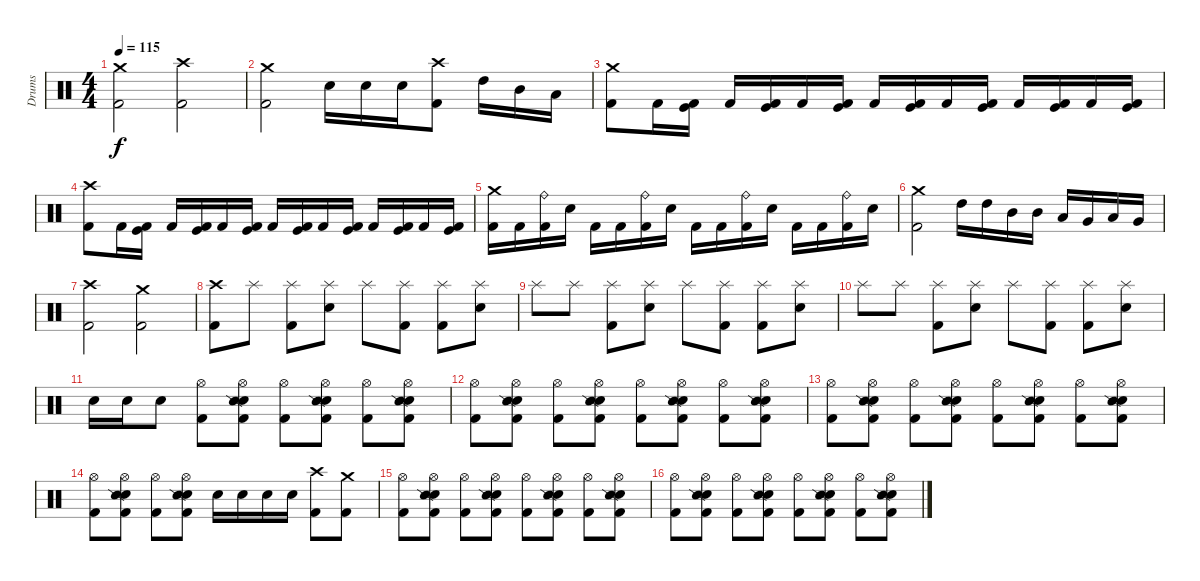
\track ("Drums" "Drums") {instrument percussion}
\staff {score}
\articulation defaults
\ts (4 4)
\tempo 115
\clef neutral
\ks c
("Crash medium (hit)" "Kick (hit) 2").2{dy f} ("Crash high (hit)" "Kick (hit) 2").2 |
("Crash medium (hit)" "Kick (hit) 2").2 "Electric Snare (hit)".16 "Electric Snare (hit)".16 "Electric Snare (hit)".16 ("Crash high (hit)" "Kick (hit) 2").8 "High Tom (hit)".16 "Mid Tom (hit)".16 "Low Tom (hit)".16 |
("Crash medium (hit)" "Kick (hit) 2").8 "Kick (hit) 2".16 ("Kick (hit)" "Kick (hit) 2").16 "Kick (hit) 2".16 ("Kick (hit)" "Kick (hit) 2").16 "Kick (hit) 2".16 ("Kick (hit)" "Kick (hit) 2").16 "Kick (hit) 2".16 ("Kick (hit)" "Kick (hit) 2").16 "Kick (hit) 2".16 ("Kick (hit)" "Kick (hit) 2").16 "Kick (hit) 2".16 ("Kick (hit)" "Kick (hit) 2").16 "Kick (hit) 2".16 ("Kick (hit)" "Kick (hit) 2").16 |
("Crash high (hit)" "Kick (hit) 2").8 "Kick (hit) 2".16 ("Kick (hit)" "Kick (hit) 2").16 "Kick (hit) 2".16 ("Kick (hit)" "Kick (hit) 2").16 "Kick (hit) 2".16 ("Kick (hit)" "Kick (hit) 2").16 "Kick (hit) 2".16 ("Kick (hit)" "Kick (hit) 2").16 "Kick (hit) 2".16 ("Kick (hit)" "Kick (hit) 2").16 "Kick (hit) 2".16 ("Kick (hit)" "Kick (hit) 2").16 "Kick (hit) 2".16 ("Kick (hit)" "Kick (hit) 2").16 |
("Crash medium (hit)" "Kick (hit) 2").16 "Kick (hit) 2".16 ("Ride (bell)" "Kick (hit) 2").16 "Electric Snare (hit)".16 "Kick (hit) 2".16 "Kick (hit) 2".16 ("Ride (bell)" "Kick (hit) 2").16 "Electric Snare (hit)".16 "Kick (hit) 2".16 "Kick (hit) 2".16 ("Ride (bell)" "Kick (hit) 2").16 "Electric Snare (hit)".16 "Kick (hit) 2".16 "Kick (hit) 2".16 ("Ride (bell)" "Kick (hit) 2").16 "Electric Snare (hit)".16 |
("Crash medium (hit)" "Kick (hit) 2").2 "High Tom (hit)".16 "High Tom (hit)".16 "Mid Tom (hit)".16 "Mid Tom (hit)".16 "Low Tom (hit)".16 "Very Low Tom (hit)".16 "Low Tom (hit)".16 "Very Low Tom (hit)".16 |
("Crash high (hit)" "Kick (hit) 2").2 ("Crash medium (hit)" "Kick (hit) 2").2 |
("Crash high (hit)" "Kick (hit) 2").8 "Splash (hit)".8 ("Splash (hit)" "Kick (hit) 2").8 ("Splash (hit)" "Electric Snare (hit)").8 "Splash (hit)".8 ("Splash (hit)" "Kick (hit) 2").8 ("Splash (hit)" "Kick (hit) 2").8 ("Splash (hit)" "Electric Snare (hit)").8 |
"Splash (hit)".8 "Splash (hit)".8 ("Splash (hit)" "Kick (hit) 2").8 ("Splash (hit)" "Electric Snare (hit)").8 "Splash (hit)".8 ("Splash (hit)" "Kick (hit) 2").8 ("Splash (hit)" "Kick (hit) 2").8 ("Splash (hit)" "Electric Snare (hit)").8 |
"Splash (hit)".8 "Splash (hit)".8 ("Splash (hit)" "Kick (hit) 2").8 ("Splash (hit)" "Electric Snare (hit)").8 "Splash (hit)".8 ("Splash (hit)" "Kick (hit) 2").8 ("Splash (hit)" "Kick (hit) 2").8 ("Splash (hit)" "Electric Snare (hit)").8 |
"Electric Snare (hit)".16 "Electric Snare (hit)".16 "Electric Snare (hit)".8 ("Hi-Hat (open)" "Kick (hit) 2").8 ("Hi-Hat (open)" "Electric Snare (hit)" "Snare (side stick) 2" "Kick (hit) 2").8 ("Hi-Hat (open)" "Kick (hit) 2").8 ("Hi-Hat (open)" "Electric Snare (hit)" "Snare (side stick) 2" "Kick (hit) 2").8 ("Hi-Hat (open)" "Kick (hit) 2").8 ("Hi-Hat (open)" "Electric Snare (hit)" "Snare (side stick) 2" "Kick (hit) 2").8 |
("Hi-Hat (open)" "Kick (hit) 2").8 ("Hi-Hat (open)" "Electric Snare (hit)" "Snare (side stick) 2" "Kick (hit) 2").8 ("Hi-Hat (open)" "Kick (hit) 2").8 ("Hi-Hat (open)" "Electric Snare (hit)" "Snare (side stick) 2" "Kick (hit) 2").8 ("Hi-Hat (open)" "Kick (hit) 2").8 ("Hi-Hat (open)" "Electric Snare (hit)" "Snare (side stick) 2" "Kick (hit) 2").8 ("Hi-Hat (open)" "Kick (hit) 2").8 ("Hi-Hat (open)" "Electric Snare (hit)" "Snare (side stick) 2" "Kick (hit) 2").8 |
("Hi-Hat (open)" "Kick (hit) 2").8 ("Hi-Hat (open)" "Electric Snare (hit)" "Snare (side stick) 2" "Kick (hit) 2").8 ("Hi-Hat (open)" "Kick (hit) 2").8 ("Hi-Hat (open)" "Electric Snare (hit)" "Snare (side stick) 2" "Kick (hit) 2").8 ("Hi-Hat (open)" "Kick (hit) 2").8 ("Hi-Hat (open)" "Electric Snare (hit)" "Snare (side stick) 2" "Kick (hit) 2").8 ("Hi-Hat (open)" "Kick (hit) 2").8 ("Hi-Hat (open)" "Electric Snare (hit)" "Snare (side stick) 2" "Kick (hit) 2").8 |
("Hi-Hat (open)" "Kick (hit) 2").8 ("Hi-Hat (open)" "Electric Snare (hit)" "Snare (side stick) 2" "Kick (hit) 2").8 ("Hi-Hat (open)" "Kick (hit) 2").8 ("Hi-Hat (open)" "Electric Snare (hit)" "Snare (side stick) 2" "Kick (hit) 2").8 "Electric Snare (hit)".16 "Electric Snare (hit)".16 "Electric Snare (hit)".16 "Electric Snare (hit)".16 ("Crash high (hit)" "Kick (hit) 2").8 ("Crash medium (hit)" "Kick (hit) 2").8 |
("Hi-Hat (open)" "Kick (hit) 2").8 ("Hi-Hat (open)" "Electric Snare (hit)" "Snare (side stick) 2" "Kick (hit) 2").8 ("Hi-Hat (open)" "Kick (hit) 2").8 ("Hi-Hat (open)" "Electric Snare (hit)" "Snare (side stick) 2" "Kick (hit) 2").8 ("Hi-Hat (open)" "Kick (hit) 2").8 ("Hi-Hat (open)" "Electric Snare (hit)" "Snare (side stick) 2" "Kick (hit) 2").8 ("Hi-Hat (open)" "Kick (hit) 2").8 ("Hi-Hat (open)" "Electric Snare (hit)" "Snare (side stick) 2" "Kick (hit) 2").8 |
("Hi-Hat (open)" "Kick (hit) 2").8 ("Hi-Hat (open)" "Electric Snare (hit)" "Snare (side stick) 2" "Kick (hit) 2").8 ("Hi-Hat (open)" "Kick (hit) 2").8 ("Hi-Hat (open)" "Electric Snare (hit)" "Snare (side stick) 2" "Kick (hit) 2").8 ("Hi-Hat (open)" "Kick (hit) 2").8 ("Hi-Hat (open)" "Electric Snare (hit)" "Snare (side stick) 2" "Kick (hit) 2").8 ("Hi-Hat (open)" "Kick (hit) 2").8 ("Hi-Hat (open)" "Electric Snare (hit)" "Snare (side stick) 2" "Kick (hit) 2").8
